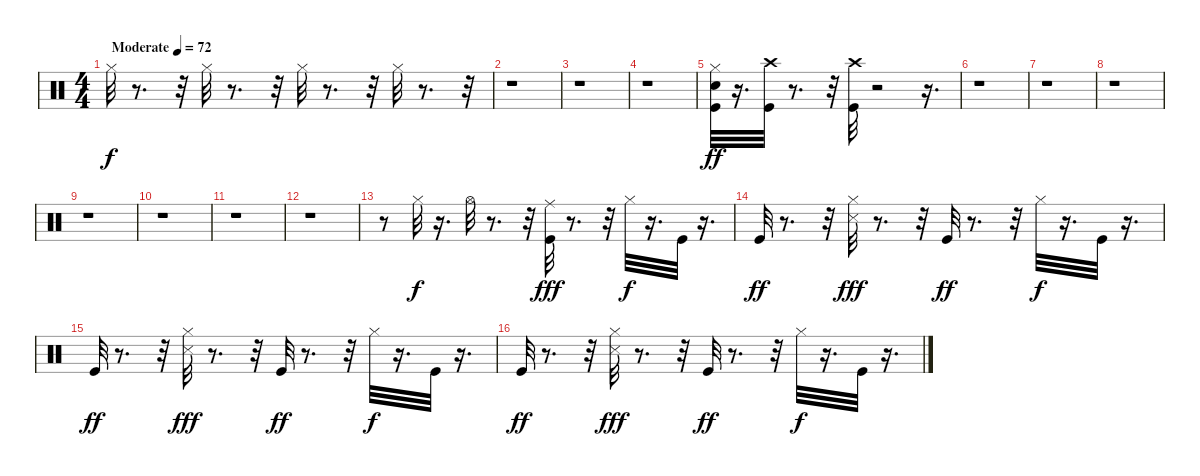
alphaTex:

\track (" " " ") {instrument percussion}
\staff {score}
\articulation defaults
\ts (4 4)
\tempo (72 "Moderate")
\clef neutral
\ks c "Hi-Hat (closed)".32{dy f}
r.8{d} r.32 "Hi-Hat (closed)".32 r.8{d} r.32 "Hi-Hat (closed)".32 r.8{d} r.32 "Hi-Hat (closed)".32 r.8{d} r.32 |
r.1 |
r.1 |
r.1 |
("Kick (hit)" "Electric Snare (hit)" "Hi-Hat (closed)").32{dy ff} r.16{d} ("Kick (hit)" "Crash high (hit)").32 r.8{d} r.32 ("Kick (hit)" "Crash high (hit)").32 r.2 r.16{d} |
r.1 |
r.1 |
r.1 |
r.1 |
r.1 |
r.1 |
r.1 |
r.8 "Hi-Hat (closed)".32{dy f} r.16{d} "Hi-Hat (open)".32 r.8{d} r.32 ("Kick (hit)" "Ride (middle)").32{dy fff} r.8{d} r.32 "Hi-Hat (closed)".32{dy f} r.16{d} "Kick (hit)".32 r.16{d} |
"Kick (hit)".32{dy ff} r.8{d} r.32 ("Snare (side stick) 3" "Hi-Hat (closed)").32{dy fff} r.8{d} r.32 "Kick (hit)".32{dy ff} r.8{d} r.32 "Hi-Hat (closed)".32{dy f} r.16{d} "Kick (hit)".32 r.16{d} |
"Kick (hit)".32{dy ff} r.8{d} r.32 ("Snare (side stick) 3" "Hi-Hat (closed)").32{dy fff} r.8{d} r.32 "Kick (hit)".32{dy ff} r.8{d} r.32 "Hi-Hat (closed)".32{dy f} r.16{d} "Kick (hit)".32 r.16{d} |
"Kick (hit)".32{dy ff} r.8{d} r.32 ("Snare (side stick) 3" "Hi-Hat (closed)").32{dy fff} r.8{d} r.32 "Kick (hit)".32{dy ff} r.8{d} r.32 "Hi-Hat (closed)".32{dy f} r.16{d} "Kick (hit)".32 r.16{d}
